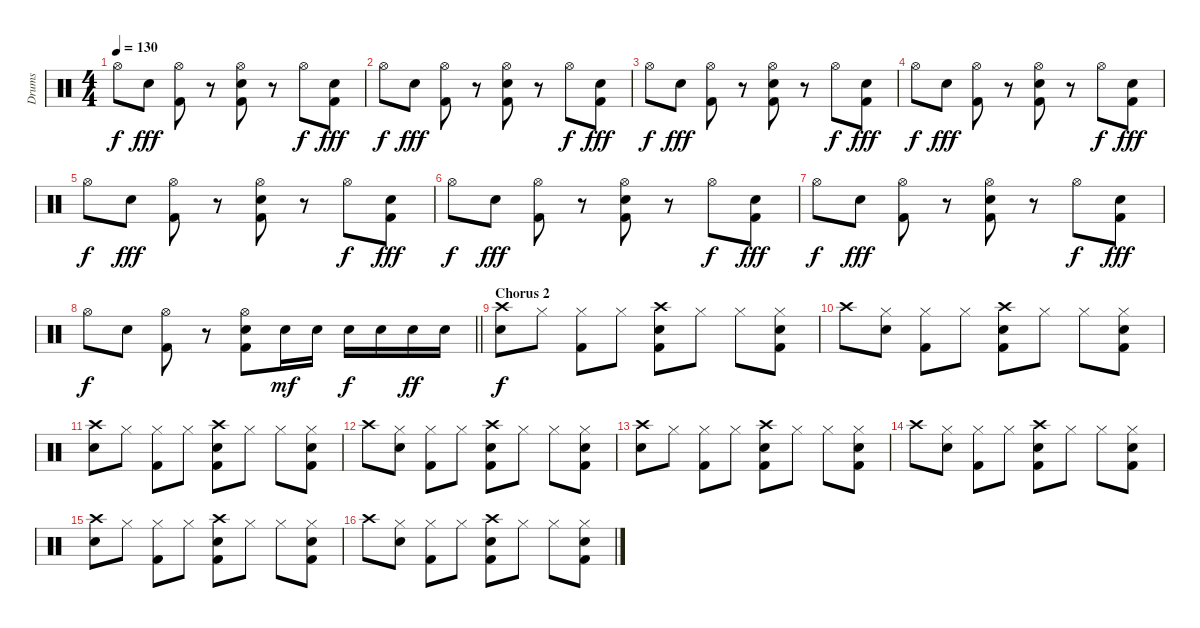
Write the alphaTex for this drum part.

\track ("Drums" "Drums") {instrument percussion}
\staff {score}
\articulation defaults
\ts (4 4)
\tempo 130
\clef neutral
\ks c "Hi-Hat (open)".8{dy f} "Snare (hit) 2".8{dy fff}
("Hi-Hat (open)" "Kick (hit) 2").8 r.8 ("Hi-Hat (open)" "Snare (hit) 2" "Kick (hit) 2").8 r.8 "Hi-Hat (open)".8{dy f} ("Snare (hit) 2" "Kick (hit) 2").8{dy fff} |
"Hi-Hat (open)".8{dy f} "Snare (hit) 2".8{dy fff} ("Hi-Hat (open)" "Kick (hit) 2").8 r.8 ("Hi-Hat (open)" "Snare (hit) 2" "Kick (hit) 2").8 r.8 "Hi-Hat (open)".8{dy f} ("Snare (hit) 2" "Kick (hit) 2").8{dy fff} |
"Hi-Hat (open)".8{dy f} "Snare (hit) 2".8{dy fff} ("Hi-Hat (open)" "Kick (hit) 2").8 r.8 ("Hi-Hat (open)" "Snare (hit) 2" "Kick (hit) 2").8 r.8 "Hi-Hat (open)".8{dy f} ("Snare (hit) 2" "Kick (hit) 2").8{dy fff} |
"Hi-Hat (open)".8{dy f} "Snare (hit) 2".8{dy fff} ("Hi-Hat (open)" "Kick (hit) 2").8 r.8 ("Hi-Hat (open)" "Snare (hit) 2" "Kick (hit) 2").8 r.8 "Hi-Hat (open)".8{dy f} ("Snare (hit) 2" "Kick (hit) 2").8{dy fff} |
"Hi-Hat (open)".8{dy f} "Snare (hit) 2".8{dy fff} ("Hi-Hat (open)" "Kick (hit) 2").8 r.8 ("Hi-Hat (open)" "Snare (hit) 2" "Kick (hit) 2").8 r.8 "Hi-Hat (open)".8{dy f} ("Snare (hit) 2" "Kick (hit) 2").8{dy fff} |
"Hi-Hat (open)".8{dy f} "Snare (hit) 2".8{dy fff} ("Hi-Hat (open)" "Kick (hit) 2").8 r.8 ("Hi-Hat (open)" "Snare (hit) 2" "Kick (hit) 2").8 r.8 "Hi-Hat (open)".8{dy f} ("Snare (hit) 2" "Kick (hit) 2").8{dy fff} |
"Hi-Hat (open)".8{dy f} "Snare (hit) 2".8{dy fff} ("Hi-Hat (open)" "Kick (hit) 2").8 r.8 ("Hi-Hat (open)" "Snare (hit) 2" "Kick (hit) 2").8 r.8 "Hi-Hat (open)".8{dy f} ("Snare (hit) 2" "Kick (hit) 2").8{dy fff} |
\barLineRight lightlight "Hi-Hat (open)".8{dy f} "Snare (hit) 2".8
("Hi-Hat (open)" "Kick (hit) 2").8 r.8 ("Hi-Hat (open)" "Snare (hit) 2" "Kick (hit) 2").8 "Snare (hit) 2".16{dy mf} "Snare (hit) 2".16 "Snare (hit) 2".16{dy f} "Snare (hit) 2".16 "Snare (hit) 2".16{dy ff} "Snare (hit) 2".16 |
\section ("" "Chorus 2")
("Crash high (hit)" "Electric Snare (hit)").8{dy f} "Hi-Hat (closed)".8 ("Hi-Hat (closed)" "Kick (hit) 2").8 "Hi-Hat (closed)".8 ("Crash high (hit)" "Electric Snare (hit)" "Kick (hit) 2").8 "Hi-Hat (closed)".8 "Hi-Hat (closed)".8 ("Hi-Hat (closed)" "Electric Snare (hit)" "Kick (hit) 2").8 |
"Crash high (hit)".8 ("Hi-Hat (closed)" "Electric Snare (hit)").8 ("Hi-Hat (closed)" "Kick (hit) 2").8 "Hi-Hat (closed)".8 ("Crash high (hit)" "Electric Snare (hit)" "Kick (hit) 2").8 "Hi-Hat (closed)".8 "Hi-Hat (closed)".8 ("Hi-Hat (closed)" "Electric Snare (hit)" "Kick (hit) 2").8 |
("Crash high (hit)" "Electric Snare (hit)").8 "Hi-Hat (closed)".8 ("Hi-Hat (closed)" "Kick (hit) 2").8 "Hi-Hat (closed)".8 ("Crash high (hit)" "Electric Snare (hit)" "Kick (hit) 2").8 "Hi-Hat (closed)".8 "Hi-Hat (closed)".8 ("Hi-Hat (closed)" "Electric Snare (hit)" "Kick (hit) 2").8 |
"Crash high (hit)".8 ("Hi-Hat (closed)" "Electric Snare (hit)").8 ("Hi-Hat (closed)" "Kick (hit) 2").8 "Hi-Hat (closed)".8 ("Crash high (hit)" "Electric Snare (hit)" "Kick (hit) 2").8 "Hi-Hat (closed)".8 "Hi-Hat (closed)".8 ("Hi-Hat (closed)" "Electric Snare (hit)" "Kick (hit) 2").8 |
("Crash high (hit)" "Electric Snare (hit)").8 "Hi-Hat (closed)".8 ("Hi-Hat (closed)" "Kick (hit) 2").8 "Hi-Hat (closed)".8 ("Crash high (hit)" "Electric Snare (hit)" "Kick (hit) 2").8 "Hi-Hat (closed)".8 "Hi-Hat (closed)".8 ("Hi-Hat (closed)" "Electric Snare (hit)" "Kick (hit) 2").8 |
"Crash high (hit)".8 ("Hi-Hat (closed)" "Electric Snare (hit)").8 ("Hi-Hat (closed)" "Kick (hit) 2").8 "Hi-Hat (closed)".8 ("Crash high (hit)" "Electric Snare (hit)" "Kick (hit) 2").8 "Hi-Hat (closed)".8 "Hi-Hat (closed)".8 ("Hi-Hat (closed)" "Electric Snare (hit)" "Kick (hit) 2").8 |
("Crash high (hit)" "Electric Snare (hit)").8 "Hi-Hat (closed)".8 ("Hi-Hat (closed)" "Kick (hit) 2").8 "Hi-Hat (closed)".8 ("Crash high (hit)" "Electric Snare (hit)" "Kick (hit) 2").8 "Hi-Hat (closed)".8 "Hi-Hat (closed)".8 ("Hi-Hat (closed)" "Electric Snare (hit)" "Kick (hit) 2").8 |
"Crash high (hit)".8 ("Hi-Hat (closed)" "Electric Snare (hit)").8 ("Hi-Hat (closed)" "Kick (hit) 2").8 "Hi-Hat (closed)".8 ("Crash high (hit)" "Electric Snare (hit)" "Kick (hit) 2").8 "Hi-Hat (closed)".8 "Hi-Hat (closed)".8 ("Hi-Hat (closed)" "Electric Snare (hit)" "Kick (hit) 2").8
